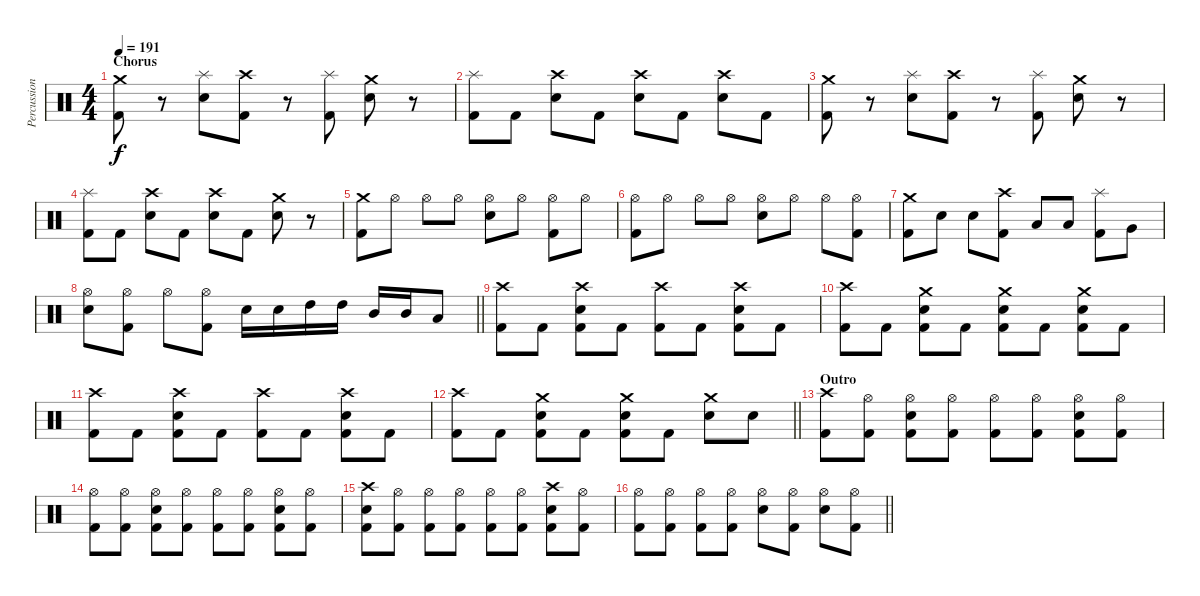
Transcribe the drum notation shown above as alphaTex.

\track ("Percussion" "Percussion") {instrument percussion}
\staff {score}
\articulation defaults
\ts (4 4)
\section ("" "Chorus")
\tempo 191
\clef neutral
\ks c
("Crash medium (hit)" "Kick (hit) 2").8{dy f} r.8 ("Splash (hit)" "Electric Snare (hit)").8 ("Crash high (hit)" "Kick (hit) 2").8 r.8 ("Splash (hit)" "Kick (hit) 2").8 ("Crash medium (hit)" "Electric Snare (hit)").8 r.8 |
("Splash (hit)" "Kick (hit) 2").8 "Kick (hit) 2".8 ("Crash high (hit)" "Electric Snare (hit)").8 "Kick (hit) 2".8 ("Crash high (hit)" "Electric Snare (hit)").8 "Kick (hit) 2".8 ("Crash high (hit)" "Electric Snare (hit)").8 "Kick (hit) 2".8 |
("Crash medium (hit)" "Kick (hit) 2").8 r.8 ("Splash (hit)" "Electric Snare (hit)").8 ("Crash high (hit)" "Kick (hit) 2").8 r.8 ("Splash (hit)" "Kick (hit) 2").8 ("Crash medium (hit)" "Electric Snare (hit)").8 r.8 |
("Splash (hit)" "Kick (hit) 2").8 "Kick (hit) 2".8 ("Crash high (hit)" "Electric Snare (hit)").8 "Kick (hit) 2".8 ("Crash high (hit)" "Electric Snare (hit)").8 "Kick (hit) 2".8 ("Crash medium (hit)" "Electric Snare (hit)").8 r.8 |
("Crash medium (hit)" "Kick (hit) 2").8 "Hi-Hat (open)".8 "Hi-Hat (open)".8 "Hi-Hat (open)".8 ("Hi-Hat (open)" "Electric Snare (hit)").8 "Hi-Hat (open)".8 ("Hi-Hat (open)" "Kick (hit) 2").8 "Hi-Hat (open)".8 |
("Hi-Hat (open)" "Kick (hit) 2").8 "Hi-Hat (open)".8 "Hi-Hat (open)".8 "Hi-Hat (open)".8 ("Hi-Hat (open)" "Electric Snare (hit)").8 "Hi-Hat (open)".8 "Hi-Hat (open)".8 ("Hi-Hat (open)" "Kick (hit) 2").8 |
("Crash medium (hit)" "Kick (hit) 2").8 "Electric Snare (hit)".8 "Electric Snare (hit)".8 ("Crash high (hit)" "Kick (hit) 2").8 "Low Tom (hit)".8 "Low Tom (hit)".8 ("Splash (hit)" "Kick (hit) 2").8 "Very Low Tom (hit)".8 |
\barLineRight lightlight
("Hi-Hat (open)" "Electric Snare (hit)").8 ("Hi-Hat (open)" "Kick (hit) 2").8 "Hi-Hat (open)".8 ("Hi-Hat (open)" "Kick (hit) 2").8 "Electric Snare (hit)".16 "Electric Snare (hit)".16 "High Tom (hit)".16 "High Tom (hit)".16 "Mid Tom (hit)".16 "Mid Tom (hit)".16 "Low Tom (hit)".8 |
("Crash high (hit)" "Kick (hit) 2").8 "Kick (hit) 2".8 ("Crash high (hit)" "Electric Snare (hit)" "Kick (hit) 2").8 "Kick (hit) 2".8 ("Crash high (hit)" "Kick (hit) 2").8 "Kick (hit) 2".8 ("Crash high (hit)" "Electric Snare (hit)" "Kick (hit) 2").8 "Kick (hit) 2".8 |
("Crash high (hit)" "Kick (hit) 2").8 "Kick (hit) 2".8 ("Crash medium (hit)" "Electric Snare (hit)" "Kick (hit) 2").8 "Kick (hit) 2".8 ("Crash medium (hit)" "Electric Snare (hit)" "Kick (hit) 2").8 "Kick (hit) 2".8 ("Crash medium (hit)" "Electric Snare (hit)" "Kick (hit) 2").8 "Kick (hit) 2".8 |
("Crash high (hit)" "Kick (hit) 2").8 "Kick (hit) 2".8 ("Crash high (hit)" "Electric Snare (hit)" "Kick (hit) 2").8 "Kick (hit) 2".8 ("Crash high (hit)" "Kick (hit) 2").8 "Kick (hit) 2".8 ("Crash high (hit)" "Electric Snare (hit)" "Kick (hit) 2").8 "Kick (hit) 2".8 |
\barLineRight lightlight
("Crash high (hit)" "Kick (hit) 2").8 "Kick (hit) 2".8 ("Crash medium (hit)" "Electric Snare (hit)" "Kick (hit) 2").8 "Kick (hit) 2".8 ("Crash medium (hit)" "Electric Snare (hit)" "Kick (hit) 2").8 "Kick (hit) 2".8 ("Crash medium (hit)" "Electric Snare (hit)").8 "Electric Snare (hit)".8 |
\section ("" "Outro")
("Crash high (hit)" "Kick (hit) 2").8 ("Hi-Hat (open)" "Kick (hit) 2").8 ("Hi-Hat (open)" "Electric Snare (hit)" "Kick (hit) 2").8 ("Hi-Hat (open)" "Kick (hit) 2").8 ("Hi-Hat (open)" "Kick (hit) 2").8 ("Hi-Hat (open)" "Kick (hit) 2").8 ("Hi-Hat (open)" "Electric Snare (hit)" "Kick (hit) 2").8 ("Hi-Hat (open)" "Kick (hit) 2").8 |
("Hi-Hat (open)" "Kick (hit) 2").8 ("Hi-Hat (open)" "Kick (hit) 2").8 ("Hi-Hat (open)" "Electric Snare (hit)" "Kick (hit) 2").8 ("Hi-Hat (open)" "Kick (hit) 2").8 ("Hi-Hat (open)" "Kick (hit) 2").8 ("Hi-Hat (open)" "Kick (hit) 2").8 ("Hi-Hat (open)" "Electric Snare (hit)" "Kick (hit) 2").8 ("Hi-Hat (open)" "Kick (hit) 2").8 |
("Crash high (hit)" "Electric Snare (hit)" "Kick (hit) 2").8 ("Hi-Hat (open)" "Kick (hit) 2").8 ("Hi-Hat (open)" "Kick (hit) 2").8 ("Hi-Hat (open)" "Kick (hit) 2").8 ("Hi-Hat (open)" "Kick (hit) 2").8 ("Hi-Hat (open)" "Kick (hit) 2").8 ("Crash high (hit)" "Electric Snare (hit)" "Kick (hit) 2").8 ("Hi-Hat (open)" "Kick (hit) 2").8 |
\barLineRight lightlight
("Hi-Hat (open)" "Kick (hit) 2").8 ("Hi-Hat (open)" "Kick (hit) 2").8 ("Hi-Hat (open)" "Kick (hit) 2").8 ("Hi-Hat (open)" "Kick (hit) 2").8 ("Hi-Hat (open)" "Electric Snare (hit)").8 ("Hi-Hat (open)" "Kick (hit) 2").8 ("Hi-Hat (open)" "Electric Snare (hit)").8 ("Hi-Hat (open)" "Kick (hit) 2").8
